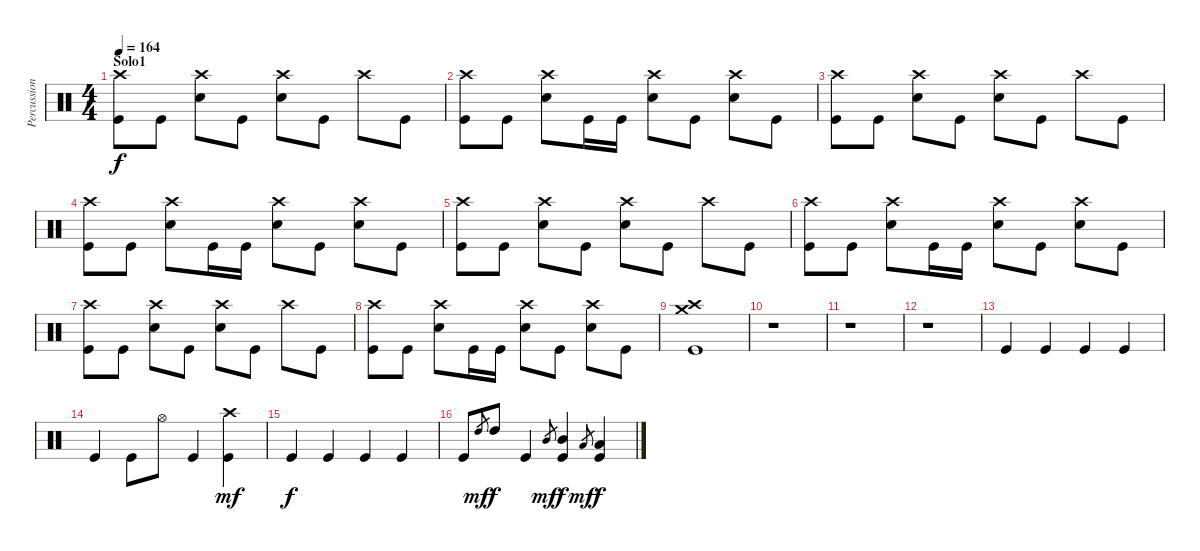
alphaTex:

\track ("Percussion" "Percussion") {instrument percussion}
\staff {score}
\articulation defaults
\ts (4 4)
\section ("" "Solo1")
\tempo 164
\clef neutral
\ks c
("Crash high (hit)" "Kick (hit)").8{dy f} "Kick (hit)".8 ("Crash high (hit)" "Electric Snare (hit)").8 "Kick (hit)".8 ("Crash high (hit)" "Electric Snare (hit)").8 "Kick (hit)".8 "Crash high (hit)".8 "Kick (hit)".8 |
("Crash high (hit)" "Kick (hit)").8 "Kick (hit)".8 ("Crash high (hit)" "Electric Snare (hit)").8 "Kick (hit)".16 "Kick (hit)".16 ("Crash high (hit)" "Electric Snare (hit)").8 "Kick (hit)".8 ("Crash high (hit)" "Electric Snare (hit)").8 "Kick (hit)".8 |
("Crash high (hit)" "Kick (hit)").8 "Kick (hit)".8 ("Crash high (hit)" "Electric Snare (hit)").8 "Kick (hit)".8 ("Crash high (hit)" "Electric Snare (hit)").8 "Kick (hit)".8 "Crash high (hit)".8 "Kick (hit)".8 |
("Crash high (hit)" "Kick (hit)").8 "Kick (hit)".8 ("Crash high (hit)" "Electric Snare (hit)").8 "Kick (hit)".16 "Kick (hit)".16 ("Crash high (hit)" "Electric Snare (hit)").8 "Kick (hit)".8 ("Crash high (hit)" "Electric Snare (hit)").8 "Kick (hit)".8 |
("Crash high (hit)" "Kick (hit)").8 "Kick (hit)".8 ("Crash high (hit)" "Electric Snare (hit)").8 "Kick (hit)".8 ("Crash high (hit)" "Electric Snare (hit)").8 "Kick (hit)".8 "Crash high (hit)".8 "Kick (hit)".8 |
("Crash high (hit)" "Kick (hit)").8 "Kick (hit)".8 ("Crash high (hit)" "Electric Snare (hit)").8 "Kick (hit)".16 "Kick (hit)".16 ("Crash high (hit)" "Electric Snare (hit)").8 "Kick (hit)".8 ("Crash high (hit)" "Electric Snare (hit)").8 "Kick (hit)".8 |
("Crash high (hit)" "Kick (hit)").8 "Kick (hit)".8 ("Crash high (hit)" "Electric Snare (hit)").8 "Kick (hit)".8 ("Crash high (hit)" "Electric Snare (hit)").8 "Kick (hit)".8 "Crash high (hit)".8 "Kick (hit)".8 |
("Crash high (hit)" "Kick (hit)").8 "Kick (hit)".8 ("Crash high (hit)" "Electric Snare (hit)").8 "Kick (hit)".16 "Kick (hit)".16 ("Crash high (hit)" "Electric Snare (hit)").8 "Kick (hit)".8 ("Crash high (hit)" "Electric Snare (hit)").8 "Kick (hit)".8 |
("Crash medium (hit)" "Crash high (hit)" "Kick (hit)").1 |
r.1 |
r.1 |
r.1 |
"Kick (hit)".4 "Kick (hit)".4 "Kick (hit)".4 "Kick (hit)".4 |
"Kick (hit)".4 "Kick (hit)".8 "Hi-Hat (open)".8 "Kick (hit)".4 ("Crash high (hit)" "Kick (hit)").4{dy mf} |
"Kick (hit)".4{dy f} "Kick (hit)".4 "Kick (hit)".4 "Kick (hit)".4 |
"Kick (hit)".8 "High Tom (hit)".8{gr dy mf} "High Tom (hit)".8{dy f} "Kick (hit)".4 "Mid Tom (hit)".8{gr dy mf} ("Mid Tom (hit)" "Kick (hit)").4{dy f} "Low Tom (hit)".8{gr dy mf} ("Low Tom (hit)" "Kick (hit)").4{dy f}
